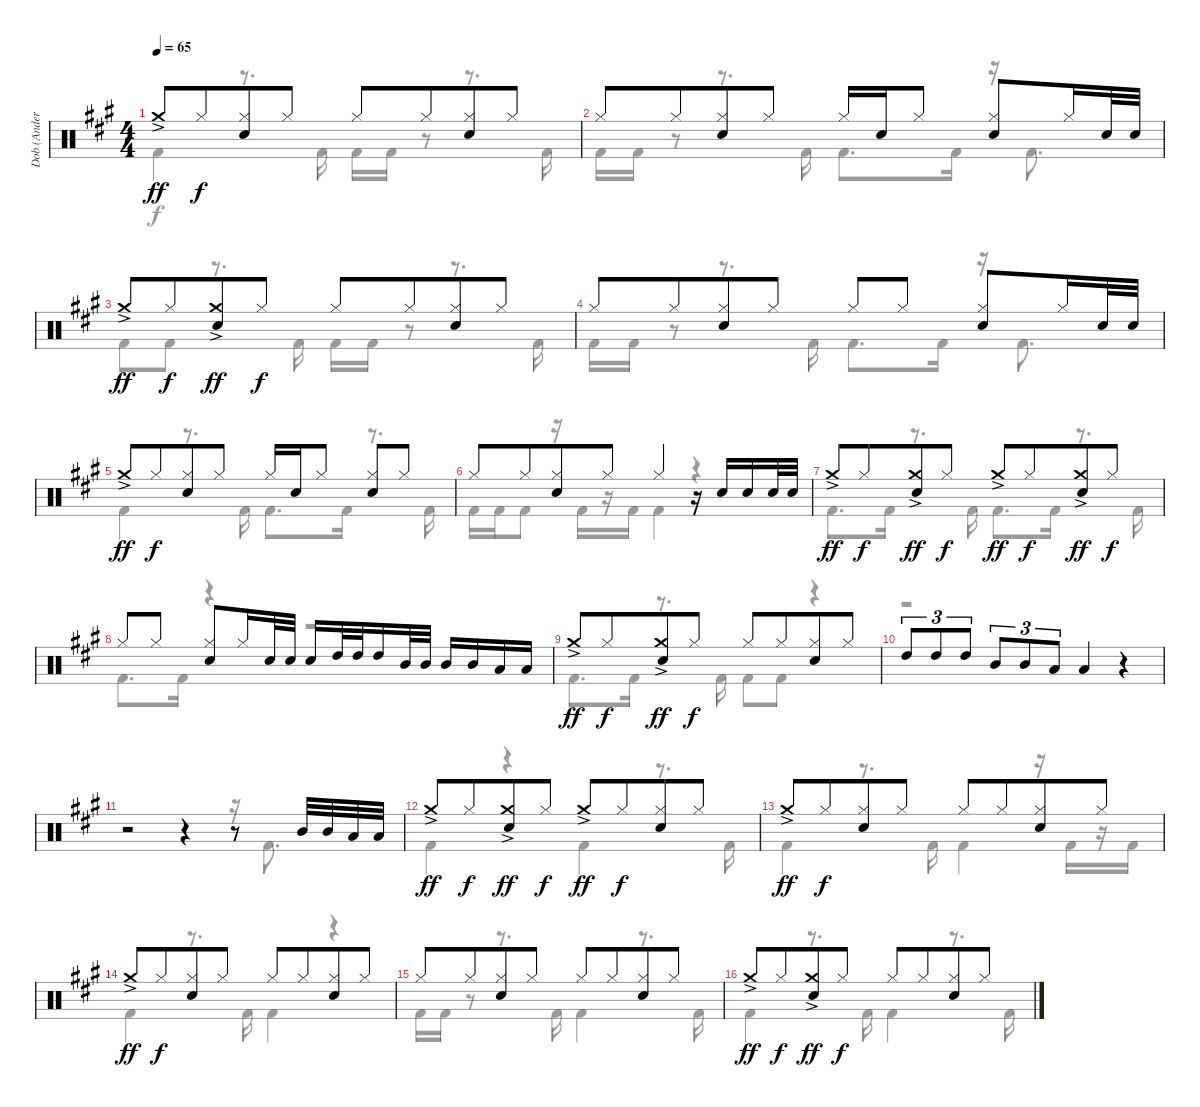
\track ("Dob (Anders Johansson)" "Dob (Ander") {instrument percussion}
\staff {score}
\articulation defaults
\voice
\ts (4 4)
\tempo 65
\clef neutral
\ks a "Crash medium (hit)"{ac}.8{dy ff} "Hi-Hat (closed)".8{dy f beam merge}
("Hi-Hat (closed)" "Electric Snare (hit)").8 "Hi-Hat (closed)".8 "Hi-Hat (closed)".8 "Hi-Hat (closed)".8{beam merge} ("Hi-Hat (closed)" "Electric Snare (hit)").8 "Hi-Hat (closed)".8 |
"Hi-Hat (closed)".8 "Hi-Hat (closed)".8{beam merge} ("Hi-Hat (closed)" "Electric Snare (hit)").8 "Hi-Hat (closed)".8 "Hi-Hat (closed)".16 "Electric Snare (hit)".16 "Hi-Hat (closed)".8 ("Hi-Hat (closed)" "Electric Snare (hit)").8 "Hi-Hat (closed)".16 "Electric Snare (hit)".32 "Electric Snare (hit)".32 |
"Crash medium (hit)"{ac}.8{dy ff} "Hi-Hat (closed)".8{dy f beam merge} ("Crash medium (hit)"{ac} "Electric Snare (hit)").8{dy ff} "Hi-Hat (closed)".8{dy f} "Hi-Hat (closed)".8 "Hi-Hat (closed)".8{beam merge} ("Hi-Hat (closed)" "Electric Snare (hit)").8 "Hi-Hat (closed)".8 |
"Hi-Hat (closed)".8 "Hi-Hat (closed)".8{beam merge} ("Hi-Hat (closed)" "Electric Snare (hit)").8 "Hi-Hat (closed)".8 "Hi-Hat (closed)".8 "Hi-Hat (closed)".8 ("Hi-Hat (closed)" "Electric Snare (hit)").8 "Hi-Hat (closed)".16 "Electric Snare (hit)".32 "Electric Snare (hit)".32 |
"Crash medium (hit)"{ac}.8{dy ff} "Hi-Hat (closed)".8{dy f beam merge} ("Hi-Hat (closed)" "Electric Snare (hit)").8 "Hi-Hat (closed)".8 "Hi-Hat (closed)".16 "Electric Snare (hit)".16 "Hi-Hat (closed)".8{beam split} ("Hi-Hat (closed)" "Electric Snare (hit)").8 "Hi-Hat (closed)".8 |
"Hi-Hat (closed)".8 "Hi-Hat (closed)".8{beam merge} ("Hi-Hat (closed)" "Electric Snare (hit)").8 "Hi-Hat (closed)".8 "Hi-Hat (closed)".4 r.16 "Electric Snare (hit)".16 "Electric Snare (hit)".16 "Electric Snare (hit)".32 "Electric Snare (hit)".32 |
"Crash medium (hit)"{ac}.8{dy ff} "Hi-Hat (closed)".8{dy f beam merge} ("Crash medium (hit)"{ac} "Electric Snare (hit)").8{dy ff} "Hi-Hat (closed)".8{dy f} "Crash medium (hit)"{ac}.8{dy ff} "Hi-Hat (closed)".8{dy f beam merge} ("Crash medium (hit)"{ac} "Electric Snare (hit)").8{dy ff} "Hi-Hat (closed)".8{dy f} |
"Hi-Hat (closed)".8 "Hi-Hat (closed)".8 ("Hi-Hat (closed)" "Electric Snare (hit)").8 "Hi-Hat (closed)".16 "Electric Snare (hit)".32 "Electric Snare (hit)".32 "Electric Snare (hit)".16 "High Tom (hit)".32 "High Tom (hit)".32 "High Tom (hit)".16 "Mid Tom (hit)".32 "Mid Tom (hit)".32 "Mid Tom (hit)".16 "Mid Tom (hit)".16 "Low Tom (hit)".16 "Low Tom (hit)".16 |
"Crash medium (hit)"{ac}.8{dy ff} "Hi-Hat (closed)".8{dy f beam merge} ("Crash medium (hit)"{ac} "Electric Snare (hit)").8{dy ff} "Hi-Hat (closed)".8{dy f} "Hi-Hat (closed)".8 "Hi-Hat (closed)".8{beam merge} ("Hi-Hat (closed)" "Electric Snare (hit)").8 "Hi-Hat (closed)".8 |
"High Tom (hit)".8{tu (3 2)} "High Tom (hit)".8{tu (3 2)} "High Tom (hit)".8{tu (3 2)} "Mid Tom (hit)".8{tu (3 2)} "Mid Tom (hit)".8{tu (3 2)} "Low Tom (hit)".8{tu (3 2)} "Low Tom (hit)".4 r.4 |
r.2 r.4 r.8 "Mid Tom (hit)".32 "Mid Tom (hit)".32 "Low Tom (hit)".32 "Low Tom (hit)".32 |
"Crash medium (hit)"{ac}.8{dy ff} "Hi-Hat (closed)".8{dy f beam merge} ("Crash medium (hit)"{ac} "Electric Snare (hit)").8{dy ff} "Hi-Hat (closed)".8{dy f} "Crash medium (hit)"{ac}.8{dy ff} "Hi-Hat (closed)".8{dy f beam merge} ("Hi-Hat (closed)" "Electric Snare (hit)").8 "Hi-Hat (closed)".8 |
"Crash medium (hit)"{ac}.8{dy ff} "Hi-Hat (closed)".8{dy f beam merge} ("Hi-Hat (closed)" "Electric Snare (hit)").8 "Hi-Hat (closed)".8 "Hi-Hat (closed)".8 "Hi-Hat (closed)".8{beam merge} ("Hi-Hat (closed)" "Electric Snare (hit)").8 "Hi-Hat (closed)".8 |
"Crash medium (hit)"{ac}.8{dy ff} "Hi-Hat (closed)".8{dy f beam merge} ("Hi-Hat (closed)" "Electric Snare (hit)").8 "Hi-Hat (closed)".8 "Hi-Hat (closed)".8 "Hi-Hat (closed)".8{beam merge} ("Hi-Hat (closed)" "Electric Snare (hit)").8 "Hi-Hat (closed)".8 |
"Hi-Hat (closed)".8 "Hi-Hat (closed)".8{beam merge} ("Hi-Hat (closed)" "Electric Snare (hit)").8 "Hi-Hat (closed)".8 "Hi-Hat (closed)".8 "Hi-Hat (closed)".8{beam merge} ("Hi-Hat (closed)" "Electric Snare (hit)").8 "Hi-Hat (closed)".8 |
"Crash medium (hit)"{ac}.8{dy ff} "Hi-Hat (closed)".8{dy f beam merge} ("Crash medium (hit)"{ac} "Electric Snare (hit)").8{dy ff} "Hi-Hat (closed)".8{dy f} "Hi-Hat (closed)".8 "Hi-Hat (closed)".8{beam merge} ("Hi-Hat (closed)" "Electric Snare (hit)").8 "Hi-Hat (closed)".8
\voice
\clef neutral
\ottava regular
\simile none
\ks a "Kick (hit) 2".4{dy f}
r.8{d} "Kick (hit) 2".16 "Kick (hit) 2".16 "Kick (hit) 2".16 r.8 r.8{d} "Kick (hit) 2".16 |
"Kick (hit) 2".16 "Kick (hit) 2".16 r.8 r.8{d} "Kick (hit) 2".16 "Kick (hit) 2".8{d} "Kick (hit) 2".16 r.16 "Kick (hit) 2".8{d} |
"Kick (hit) 2".8 "Kick (hit) 2".8 r.8{d} "Kick (hit) 2".16 "Kick (hit) 2".16 "Kick (hit) 2".16 r.8 r.8{d} "Kick (hit) 2".16 |
"Kick (hit) 2".16 "Kick (hit) 2".16 r.8 r.8{d} "Kick (hit) 2".16 "Kick (hit) 2".8{d} "Kick (hit) 2".16 r.16 "Kick (hit) 2".8{d} |
"Kick (hit) 2".4 r.8{d} "Kick (hit) 2".16 "Kick (hit) 2".8{d} "Kick (hit) 2".16 r.8{d} "Kick (hit) 2".16 |
"Kick (hit) 2".16 "Kick (hit) 2".16 "Kick (hit) 2".8 r.16 "Kick (hit) 2".16 r.16 "Kick (hit) 2".16 "Kick (hit) 2".4 r.4 |
"Kick (hit) 2".8{d} "Kick (hit) 2".16 r.8{d} "Kick (hit) 2".16 "Kick (hit) 2".8{d} "Kick (hit) 2".16 r.8{d} "Kick (hit) 2".16 |
"Kick (hit) 2".8{d} "Kick (hit) 2".16 r.4 r.2 |
"Kick (hit) 2".8{d} "Kick (hit) 2".16 r.8{d} "Kick (hit) 2".16 "Kick (hit) 2".8 "Kick (hit) 2".8 r.4 |
r.1 |
r.2 r.4 r.16 "Kick (hit) 2".8{d} |
"Kick (hit) 2".4 r.4 "Kick (hit) 2".4 r.8{d} "Kick (hit) 2".16 |
"Kick (hit) 2".4 r.8{d} "Kick (hit) 2".16 "Kick (hit) 2".4 r.16 "Kick (hit) 2".16 r.16 "Kick (hit) 2".16 |
"Kick (hit) 2".4 r.8{d} "Kick (hit) 2".16 "Kick (hit) 2".4 r.4 |
"Kick (hit) 2".16 "Kick (hit) 2".16 r.8 r.8{d} "Kick (hit) 2".16 "Kick (hit) 2".4 r.8{d} "Kick (hit) 2".16 |
"Kick (hit) 2".4 r.8{d} "Kick (hit) 2".16 "Kick (hit) 2".4 r.8{d} "Kick (hit) 2".16
